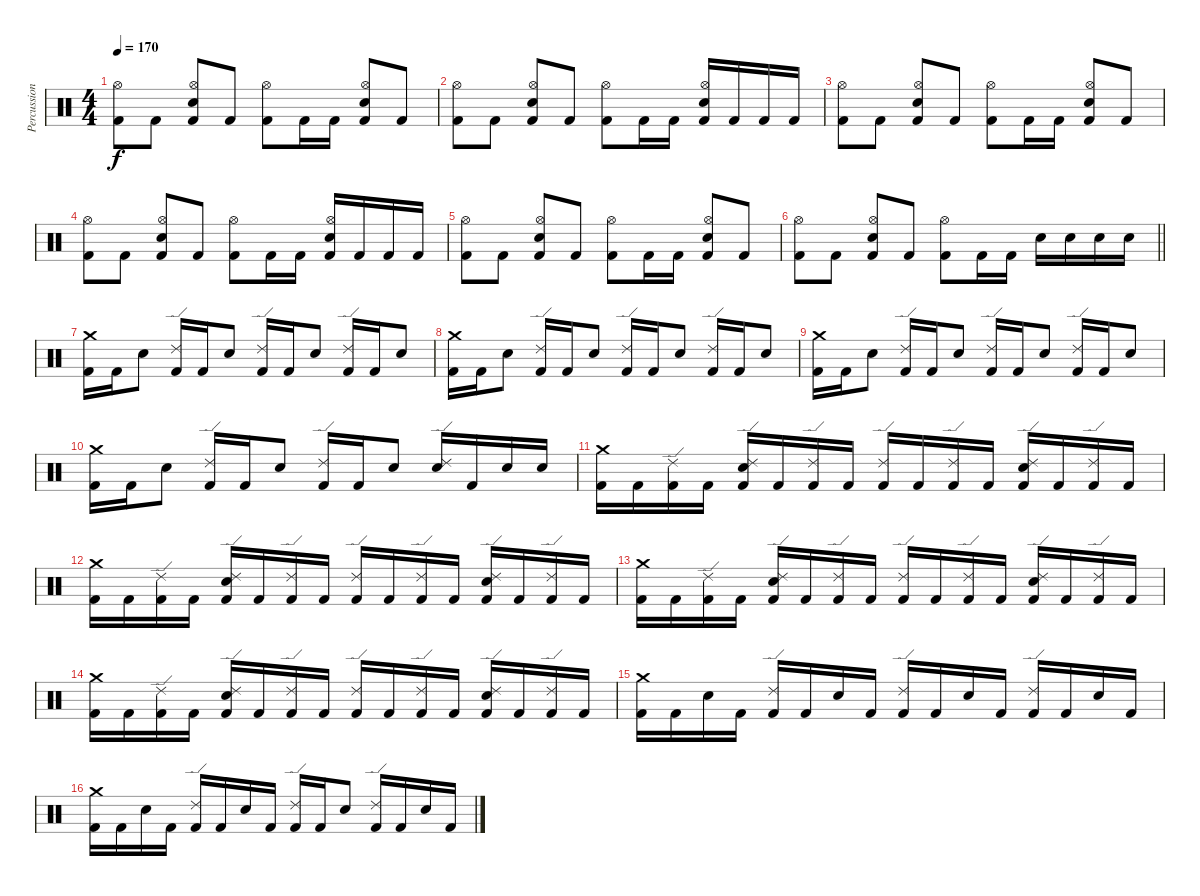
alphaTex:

\track ("Percussion" "Percussion") {instrument percussion}
\staff {score}
\articulation defaults
\ts (4 4)
\tempo 170
\clef neutral
\ks c
("Kick (hit) 2" "Hi-Hat (open)").8{dy f} "Kick (hit) 2".8 ("Kick (hit) 2" "Electric Snare (hit)" "Hi-Hat (open)").8 "Kick (hit) 2".8 ("Kick (hit) 2" "Hi-Hat (open)").8 "Kick (hit) 2".16 "Kick (hit) 2".16 ("Kick (hit) 2" "Electric Snare (hit)" "Hi-Hat (open)").8 "Kick (hit) 2".8 |
("Kick (hit) 2" "Hi-Hat (open)").8 "Kick (hit) 2".8 ("Kick (hit) 2" "Electric Snare (hit)" "Hi-Hat (open)").8 "Kick (hit) 2".8 ("Kick (hit) 2" "Hi-Hat (open)").8 "Kick (hit) 2".16 "Kick (hit) 2".16 ("Kick (hit) 2" "Electric Snare (hit)" "Hi-Hat (open)").16 "Kick (hit) 2".16 "Kick (hit) 2".16 "Kick (hit) 2".16 |
("Kick (hit) 2" "Hi-Hat (open)").8 "Kick (hit) 2".8 ("Kick (hit) 2" "Electric Snare (hit)" "Hi-Hat (open)").8 "Kick (hit) 2".8 ("Kick (hit) 2" "Hi-Hat (open)").8 "Kick (hit) 2".16 "Kick (hit) 2".16 ("Kick (hit) 2" "Electric Snare (hit)" "Hi-Hat (open)").8 "Kick (hit) 2".8 |
("Kick (hit) 2" "Hi-Hat (open)").8 "Kick (hit) 2".8 ("Kick (hit) 2" "Electric Snare (hit)" "Hi-Hat (open)").8 "Kick (hit) 2".8 ("Kick (hit) 2" "Hi-Hat (open)").8 "Kick (hit) 2".16 "Kick (hit) 2".16 ("Kick (hit) 2" "Electric Snare (hit)" "Hi-Hat (open)").16 "Kick (hit) 2".16 "Kick (hit) 2".16 "Kick (hit) 2".16 |
("Kick (hit) 2" "Hi-Hat (open)").8 "Kick (hit) 2".8 ("Kick (hit) 2" "Electric Snare (hit)" "Hi-Hat (open)").8 "Kick (hit) 2".8 ("Kick (hit) 2" "Hi-Hat (open)").8 "Kick (hit) 2".16 "Kick (hit) 2".16 ("Kick (hit) 2" "Electric Snare (hit)" "Hi-Hat (open)").8 "Kick (hit) 2".8 |
\barLineRight lightlight
("Kick (hit) 2" "Hi-Hat (open)").8 "Kick (hit) 2".8 ("Kick (hit) 2" "Electric Snare (hit)" "Hi-Hat (open)").8 "Kick (hit) 2".8 ("Kick (hit) 2" "Hi-Hat (open)").8 "Kick (hit) 2".16 "Kick (hit) 2".16 "Electric Snare (hit)".16 "Electric Snare (hit)".16 "Electric Snare (hit)".16 "Electric Snare (hit)".16 |
\section ("" "")
("Crash medium (hit)" "Kick (hit) 2").16 "Kick (hit) 2".16 "Electric Snare (hit)".8 ("Ride (edge) 2" "Kick (hit) 2").16 "Kick (hit) 2".16 "Electric Snare (hit)".8 ("Ride (edge) 2" "Kick (hit) 2").16 "Kick (hit) 2".16 "Electric Snare (hit)".8 ("Ride (edge) 2" "Kick (hit) 2").16 "Kick (hit) 2".16 "Electric Snare (hit)".8 |
("Crash medium (hit)" "Kick (hit) 2").16 "Kick (hit) 2".16 "Electric Snare (hit)".8 ("Ride (edge) 2" "Kick (hit) 2").16 "Kick (hit) 2".16 "Electric Snare (hit)".8 ("Ride (edge) 2" "Kick (hit) 2").16 "Kick (hit) 2".16 "Electric Snare (hit)".8 ("Ride (edge) 2" "Kick (hit) 2").16 "Kick (hit) 2".16 "Electric Snare (hit)".8 |
("Crash medium (hit)" "Kick (hit) 2").16 "Kick (hit) 2".16 "Electric Snare (hit)".8 ("Ride (edge) 2" "Kick (hit) 2").16 "Kick (hit) 2".16 "Electric Snare (hit)".8 ("Ride (edge) 2" "Kick (hit) 2").16 "Kick (hit) 2".16 "Electric Snare (hit)".8 ("Ride (edge) 2" "Kick (hit) 2").16 "Kick (hit) 2".16 "Electric Snare (hit)".8 |
("Crash medium (hit)" "Kick (hit) 2").16 "Kick (hit) 2".16 "Electric Snare (hit)".8 ("Ride (edge) 2" "Kick (hit) 2").16 "Kick (hit) 2".16 "Electric Snare (hit)".8 ("Ride (edge) 2" "Kick (hit) 2").16 "Kick (hit) 2".16 "Electric Snare (hit)".8 ("Electric Snare (hit)" "Ride (edge) 2").16 "Kick (hit) 2".16 "Electric Snare (hit)".16 "Electric Snare (hit)".16 |
("Crash medium (hit)" "Kick (hit) 2").16 "Kick (hit) 2".16 ("Ride (edge) 2" "Kick (hit) 2").16 "Kick (hit) 2".16 ("Ride (edge) 2" "Kick (hit) 2" "Electric Snare (hit)").16 "Kick (hit) 2".16 ("Ride (edge) 2" "Kick (hit) 2").16 "Kick (hit) 2".16 ("Ride (edge) 2" "Kick (hit) 2").16 "Kick (hit) 2".16 ("Ride (edge) 2" "Kick (hit) 2").16 "Kick (hit) 2".16 ("Ride (edge) 2" "Kick (hit) 2" "Electric Snare (hit)").16 "Kick (hit) 2".16 ("Ride (edge) 2" "Kick (hit) 2").16 "Kick (hit) 2".16 |
("Crash medium (hit)" "Kick (hit) 2").16 "Kick (hit) 2".16 ("Ride (edge) 2" "Kick (hit) 2").16 "Kick (hit) 2".16 ("Ride (edge) 2" "Kick (hit) 2" "Electric Snare (hit)").16 "Kick (hit) 2".16 ("Ride (edge) 2" "Kick (hit) 2").16 "Kick (hit) 2".16 ("Ride (edge) 2" "Kick (hit) 2").16 "Kick (hit) 2".16 ("Ride (edge) 2" "Kick (hit) 2").16 "Kick (hit) 2".16 ("Ride (edge) 2" "Kick (hit) 2" "Electric Snare (hit)").16 "Kick (hit) 2".16 ("Ride (edge) 2" "Kick (hit) 2").16 "Kick (hit) 2".16 |
("Crash medium (hit)" "Kick (hit) 2").16 "Kick (hit) 2".16 ("Ride (edge) 2" "Kick (hit) 2").16 "Kick (hit) 2".16 ("Ride (edge) 2" "Kick (hit) 2" "Electric Snare (hit)").16 "Kick (hit) 2".16 ("Ride (edge) 2" "Kick (hit) 2").16 "Kick (hit) 2".16 ("Ride (edge) 2" "Kick (hit) 2").16 "Kick (hit) 2".16 ("Ride (edge) 2" "Kick (hit) 2").16 "Kick (hit) 2".16 ("Ride (edge) 2" "Kick (hit) 2" "Electric Snare (hit)").16 "Kick (hit) 2".16 ("Ride (edge) 2" "Kick (hit) 2").16 "Kick (hit) 2".16 |
("Crash medium (hit)" "Kick (hit) 2").16 "Kick (hit) 2".16 ("Ride (edge) 2" "Kick (hit) 2").16 "Kick (hit) 2".16 ("Ride (edge) 2" "Kick (hit) 2" "Electric Snare (hit)").16 "Kick (hit) 2".16 ("Ride (edge) 2" "Kick (hit) 2").16 "Kick (hit) 2".16 ("Ride (edge) 2" "Kick (hit) 2").16 "Kick (hit) 2".16 ("Ride (edge) 2" "Kick (hit) 2").16 "Kick (hit) 2".16 ("Ride (edge) 2" "Kick (hit) 2" "Electric Snare (hit)").16 "Kick (hit) 2".16 ("Ride (edge) 2" "Kick (hit) 2").16 "Kick (hit) 2".16 |
("Crash medium (hit)" "Kick (hit) 2").16 "Kick (hit) 2".16 "Electric Snare (hit)".16 "Kick (hit) 2".16 ("Ride (edge) 2" "Kick (hit) 2").16 "Kick (hit) 2".16 "Electric Snare (hit)".16 "Kick (hit) 2".16 ("Ride (edge) 2" "Kick (hit) 2").16 "Kick (hit) 2".16 "Electric Snare (hit)".16 "Kick (hit) 2".16 ("Ride (edge) 2" "Kick (hit) 2").16 "Kick (hit) 2".16 "Electric Snare (hit)".16 "Kick (hit) 2".16 |
("Crash medium (hit)" "Kick (hit) 2").16 "Kick (hit) 2".16 "Electric Snare (hit)".16 "Kick (hit) 2".16 ("Ride (edge) 2" "Kick (hit) 2").16 "Kick (hit) 2".16 "Electric Snare (hit)".16 "Kick (hit) 2".16 ("Ride (edge) 2" "Kick (hit) 2").16 "Kick (hit) 2".16 "Electric Snare (hit)".8 ("Ride (edge) 2" "Kick (hit) 2").16 "Kick (hit) 2".16 "Electric Snare (hit)".16 "Kick (hit) 2".16
